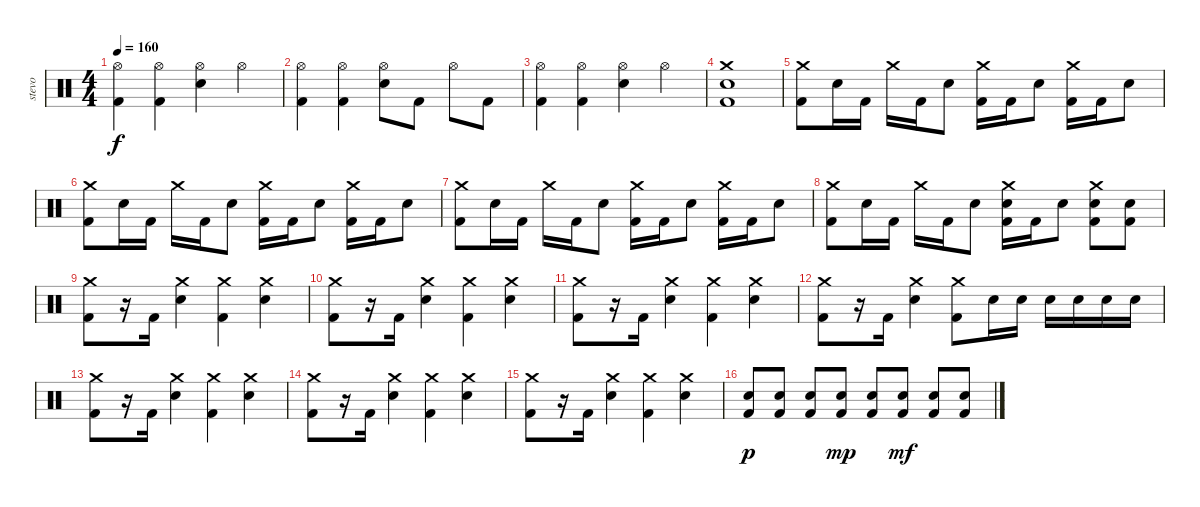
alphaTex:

\track ("stevo" "stevo") {instrument percussion}
\staff {score}
\articulation defaults
\ts (4 4)
\tempo 160
\clef neutral
\ks c
("Hi-Hat (open)" "Kick (hit) 2").4{dy f} ("Hi-Hat (open)" "Kick (hit) 2").4 ("Electric Snare (hit)" "Hi-Hat (open)").4 "Hi-Hat (open)".4 |
("Hi-Hat (open)" "Kick (hit) 2").4 ("Hi-Hat (open)" "Kick (hit) 2").4 ("Electric Snare (hit)" "Hi-Hat (open)").8 "Kick (hit) 2".8 "Hi-Hat (open)".8 "Kick (hit) 2".8 |
("Hi-Hat (open)" "Kick (hit) 2").4 ("Hi-Hat (open)" "Kick (hit) 2").4 ("Electric Snare (hit)" "Hi-Hat (open)").4 "Hi-Hat (open)".4 |
("Crash medium (hit)" "Electric Snare (hit)" "Kick (hit) 2").1 |
("Crash medium (hit)" "Kick (hit) 2").8 "Electric Snare (hit)".16 "Kick (hit) 2".16 "Crash medium (hit)".16 "Kick (hit) 2".16 "Electric Snare (hit)".8 ("Crash medium (hit)" "Kick (hit) 2").16 "Kick (hit) 2".16 "Electric Snare (hit)".8 ("Crash medium (hit)" "Kick (hit) 2").16 "Kick (hit) 2".16 "Electric Snare (hit)".8 |
("Crash medium (hit)" "Kick (hit) 2").8 "Electric Snare (hit)".16 "Kick (hit) 2".16 "Crash medium (hit)".16 "Kick (hit) 2".16 "Electric Snare (hit)".8 ("Crash medium (hit)" "Kick (hit) 2").16 "Kick (hit) 2".16 "Electric Snare (hit)".8 ("Crash medium (hit)" "Kick (hit) 2").16 "Kick (hit) 2".16 "Electric Snare (hit)".8 |
("Crash medium (hit)" "Kick (hit) 2").8 "Electric Snare (hit)".16 "Kick (hit) 2".16 "Crash medium (hit)".16 "Kick (hit) 2".16 "Electric Snare (hit)".8 ("Crash medium (hit)" "Kick (hit) 2").16 "Kick (hit) 2".16 "Electric Snare (hit)".8 ("Crash medium (hit)" "Kick (hit) 2").16 "Kick (hit) 2".16 "Electric Snare (hit)".8 |
("Crash medium (hit)" "Kick (hit) 2").8 "Electric Snare (hit)".16 "Kick (hit) 2".16 "Crash medium (hit)".16 "Kick (hit) 2".16 "Electric Snare (hit)".8 ("Crash medium (hit)" "Electric Snare (hit)" "Kick (hit) 2").16 "Kick (hit) 2".16 "Electric Snare (hit)".8 ("Crash medium (hit)" "Electric Snare (hit)" "Kick (hit) 2").8 ("Electric Snare (hit)" "Kick (hit) 2").8 |
("Crash medium (hit)" "Kick (hit) 2").8 r.16 "Kick (hit) 2".16 ("Crash medium (hit)" "Electric Snare (hit)").4 ("Crash medium (hit)" "Kick (hit) 2").4 ("Crash medium (hit)" "Electric Snare (hit)").4 |
("Crash medium (hit)" "Kick (hit) 2").8 r.16 "Kick (hit) 2".16 ("Crash medium (hit)" "Electric Snare (hit)").4 ("Crash medium (hit)" "Kick (hit) 2").4 ("Crash medium (hit)" "Electric Snare (hit)").4 |
("Crash medium (hit)" "Kick (hit) 2").8 r.16 "Kick (hit) 2".16 ("Crash medium (hit)" "Electric Snare (hit)").4 ("Crash medium (hit)" "Kick (hit) 2").4 ("Crash medium (hit)" "Electric Snare (hit)").4 |
("Crash medium (hit)" "Kick (hit) 2").8 r.16 "Kick (hit) 2".16 ("Crash medium (hit)" "Electric Snare (hit)").4 ("Crash medium (hit)" "Kick (hit) 2").8 "Electric Snare (hit)".16 "Electric Snare (hit)".16 "Electric Snare (hit)".16 "Electric Snare (hit)".16 "Electric Snare (hit)".16 "Electric Snare (hit)".16 |
("Crash medium (hit)" "Kick (hit) 2").8 r.16 "Kick (hit) 2".16 ("Crash medium (hit)" "Electric Snare (hit)").4 ("Crash medium (hit)" "Kick (hit) 2").4 ("Crash medium (hit)" "Electric Snare (hit)").4 |
("Crash medium (hit)" "Kick (hit) 2").8 r.16 "Kick (hit) 2".16 ("Crash medium (hit)" "Electric Snare (hit)").4 ("Crash medium (hit)" "Kick (hit) 2").4 ("Crash medium (hit)" "Electric Snare (hit)").4 |
("Crash medium (hit)" "Kick (hit) 2").8 r.16 "Kick (hit) 2".16 ("Crash medium (hit)" "Electric Snare (hit)").4 ("Crash medium (hit)" "Kick (hit) 2").4 ("Crash medium (hit)" "Electric Snare (hit)").4 |
("Electric Snare (hit)" "Kick (hit) 2").8{dy p} ("Electric Snare (hit)" "Kick (hit) 2").8 ("Electric Snare (hit)" "Kick (hit) 2").8 ("Electric Snare (hit)" "Kick (hit) 2").8{dy mp} ("Electric Snare (hit)" "Kick (hit) 2").8 ("Electric Snare (hit)" "Kick (hit) 2").8{dy mf} ("Electric Snare (hit)" "Kick (hit) 2").8 ("Electric Snare (hit)" "Kick (hit) 2").8
